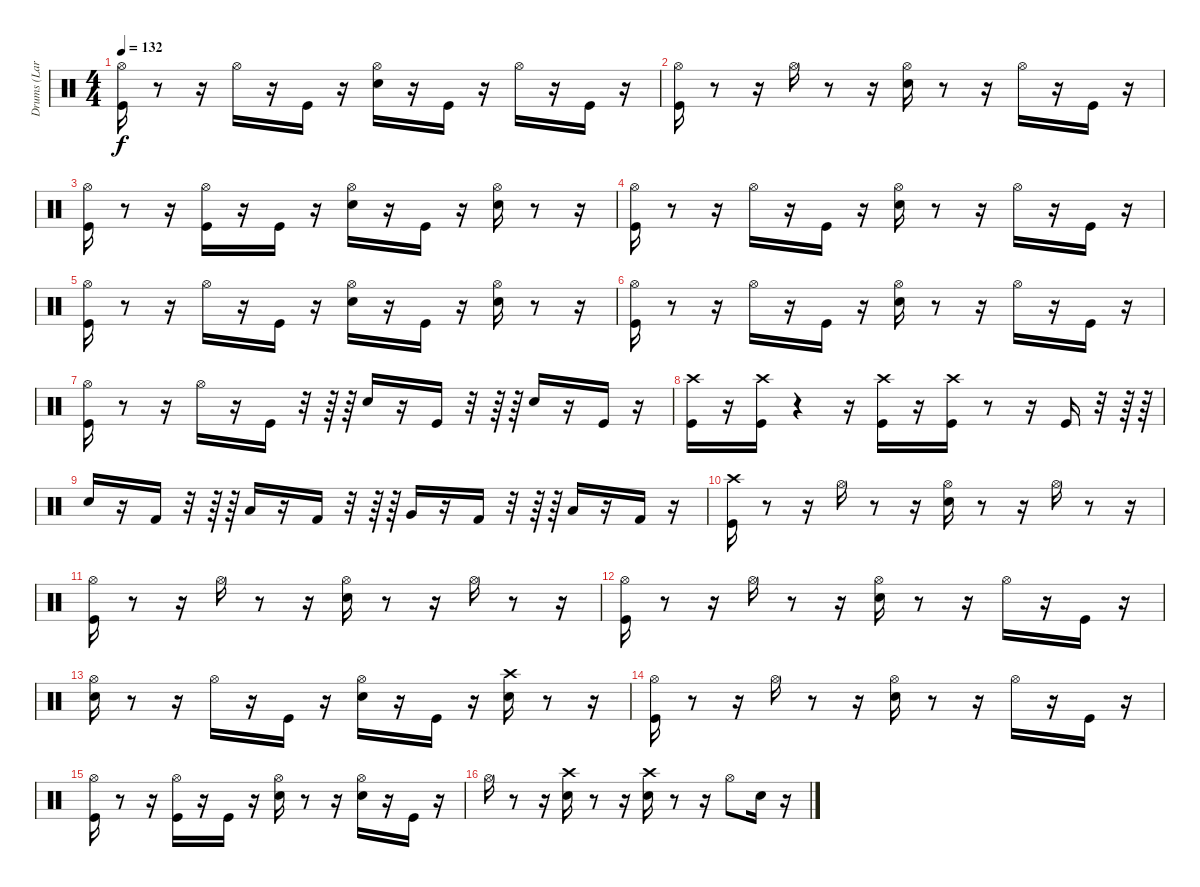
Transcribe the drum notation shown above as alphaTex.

\track ("Drums (Lars)" "Drums (Lar") {instrument percussion}
\staff {score}
\articulation defaults
\ts (4 4)
\tempo 132
\clef neutral
\ks c
("Kick (hit)" "Hi-Hat (open)").16{dy f} r.8 r.16 "Hi-Hat (open)".16 r.16 "Kick (hit)".16 r.16 ("Hi-Hat (open)" "Snare (hit) 2").16 r.16 "Kick (hit)".16 r.16 "Hi-Hat (open)".16 r.16 "Kick (hit)".16 r.16 |
("Kick (hit)" "Hi-Hat (open)").16 r.8 r.16 "Hi-Hat (open)".16 r.8 r.16 ("Hi-Hat (open)" "Snare (hit) 2").16 r.8 r.16 "Hi-Hat (open)".16 r.16 "Kick (hit)".16 r.16 |
("Kick (hit)" "Hi-Hat (open)").16 r.8 r.16 ("Hi-Hat (open)" "Kick (hit)").16 r.16 "Kick (hit)".16 r.16 ("Hi-Hat (open)" "Snare (hit) 2").16 r.16 "Kick (hit)".16 r.16 ("Hi-Hat (open)" "Snare (hit) 2").16 r.8 r.16 |
("Hi-Hat (open)" "Kick (hit)").16 r.8 r.16 "Hi-Hat (open)".16 r.16 "Kick (hit)".16 r.16 ("Hi-Hat (open)" "Snare (hit) 2").16 r.8 r.16 "Hi-Hat (open)".16 r.16 "Kick (hit)".16 r.16 |
("Kick (hit)" "Hi-Hat (open)").16 r.8 r.16 "Hi-Hat (open)".16 r.16 "Kick (hit)".16 r.16 ("Hi-Hat (open)" "Snare (hit) 2").16 r.16 "Kick (hit)".16 r.16 ("Hi-Hat (open)" "Snare (hit) 2").16 r.8 r.16 |
("Kick (hit)" "Hi-Hat (open)").16 r.8 r.16 "Hi-Hat (open)".16 r.16 "Kick (hit)".16 r.16 ("Hi-Hat (open)" "Snare (hit) 2").16 r.8 r.16 "Hi-Hat (open)".16 r.16 "Kick (hit)".16 r.16 |
("Hi-Hat (open)" "Kick (hit)").16 r.8 r.16 "Hi-Hat (open)".16 r.16 "Kick (hit)".16 r.32 r.64 r.64 "Snare (hit) 2".16 r.16 "Kick (hit)".16 r.32 r.64 r.64 "Snare (hit) 2".16 r.16 "Kick (hit)".16 r.16 |
("Crash high (hit)" "Kick (hit)").16 r.16 ("Crash high (hit)" "Kick (hit)").16 r.4 r.16 ("Crash high (hit)" "Kick (hit)").16 r.16 ("Kick (hit)" "Crash high (hit)").16 r.8 r.16 "Kick (hit)".16 r.32 r.64 r.64 |
"Snare (hit) 2".16 r.16 "Kick (hit) 2".16 r.32 r.64 r.64 "Low Tom (hit)".16 r.16 "Kick (hit) 2".16 r.32 r.64 r.64 "Very Low Tom (hit)".16 r.16 "Kick (hit) 2".16 r.32 r.64 r.64 "Low Floor Tom (hit)".16 r.16 "Kick (hit) 2".16 r.16 |
("Kick (hit)" "Crash high (hit)").16 r.8 r.16 "Hi-Hat (open)".16 r.8 r.16 ("Hi-Hat (open)" "Snare (hit) 2").16 r.8 r.16 "Hi-Hat (open)".16 r.8 r.16 |
("Kick (hit)" "Hi-Hat (open)").16 r.8 r.16 "Hi-Hat (open)".16 r.8 r.16 ("Hi-Hat (open)" "Snare (hit) 2").16 r.8 r.16 "Hi-Hat (open)".16 r.8 r.16 |
("Kick (hit)" "Hi-Hat (open)").16 r.8 r.16 "Hi-Hat (open)".16 r.8 r.16 ("Hi-Hat (open)" "Snare (hit) 2").16 r.8 r.16 "Hi-Hat (open)".16 r.16 "Kick (hit)".16 r.16 |
("Hi-Hat (open)" "Snare (hit) 2").16 r.8 r.16 "Hi-Hat (open)".16 r.16 "Kick (hit)".16 r.16 ("Hi-Hat (open)" "Snare (hit) 2").16 r.16 "Kick (hit)".16 r.16 ("Crash high (hit)" "Snare (hit) 2").16 r.8 r.16 |
("Hi-Hat (open)" "Kick (hit)").16 r.8 r.16 "Hi-Hat (open)".16 r.8 r.16 ("Hi-Hat (open)" "Snare (hit) 2").16 r.8 r.16 "Hi-Hat (open)".16 r.16 "Kick (hit)".16 r.16 |
("Hi-Hat (open)" "Kick (hit)").16 r.8 r.16 ("Hi-Hat (open)" "Kick (hit)").16 r.16 "Kick (hit)".16 r.16 ("Hi-Hat (open)" "Snare (hit) 2").16 r.8 r.16 ("Hi-Hat (open)" "Snare (hit) 2").16 r.16 "Kick (hit)".16 r.16 |
"Hi-Hat (open)".16 r.8 r.16 ("Crash high (hit)" "Snare (hit) 2").16 r.8 r.16 ("Crash high (hit)" "Snare (hit) 2").16 r.8 r.16 "Hi-Hat (open)".8 "Snare (hit) 2".16 r.16
